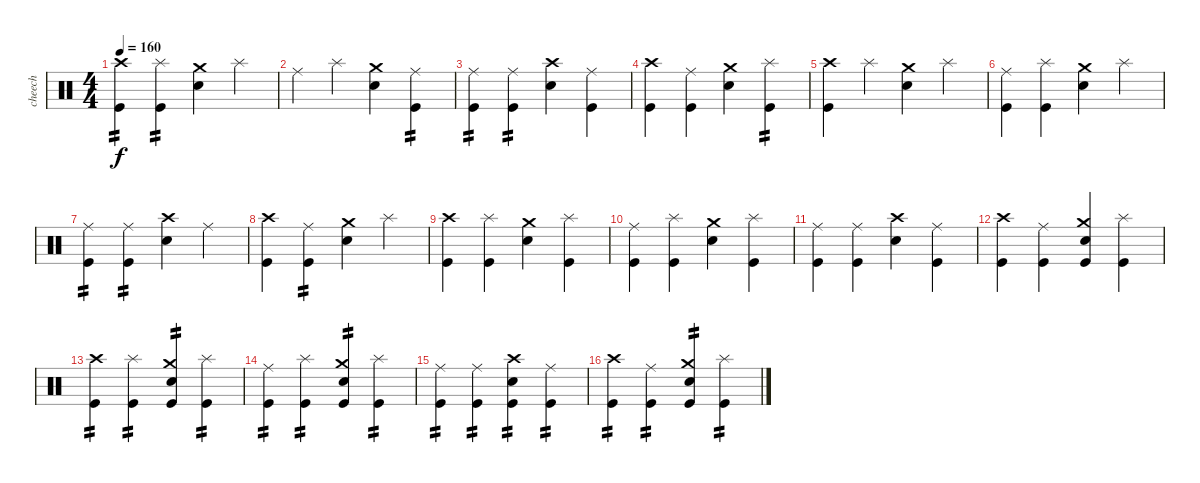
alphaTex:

\track ("cheech" "cheech") {instrument percussion}
\staff {score}
\articulation defaults
\ts (4 4)
\tempo 160
\clef neutral
\ks c
("Crash high (hit)" "Kick (hit)").4{tp 2 dy f} ("Splash (hit)" "Kick (hit)").4{tp 2} ("Crash medium (hit)" "Electric Snare (hit)").4 "Splash (hit)".4 |
"Ride (middle)".4 "Splash (hit)".4 ("Crash medium (hit)" "Electric Snare (hit)").4 ("Ride (middle)" "Kick (hit)").4{tp 2} |
("Ride (middle)" "Kick (hit)").4{tp 2} ("Ride (middle)" "Kick (hit)").4{tp 2} ("Crash high (hit)" "Electric Snare (hit)").4 ("Ride (middle)" "Kick (hit)").4 |
("Crash high (hit)" "Kick (hit)").4 ("Ride (middle)" "Kick (hit)").4 ("Crash medium (hit)" "Electric Snare (hit)").4 ("Splash (hit)" "Kick (hit)").4{tp 2} |
("Crash high (hit)" "Kick (hit)").4 "Splash (hit)".4 ("Crash medium (hit)" "Electric Snare (hit)").4 "Splash (hit)".4 |
("Ride (middle)" "Kick (hit)").4 ("Splash (hit)" "Kick (hit)").4 ("Crash medium (hit)" "Electric Snare (hit)").4 "Splash (hit)".4 |
("Ride (middle)" "Kick (hit)").4{tp 2} ("Ride (middle)" "Kick (hit)").4{tp 2} ("Crash high (hit)" "Electric Snare (hit)").4 "Ride (middle)".4 |
("Crash high (hit)" "Kick (hit)").4 ("Ride (middle)" "Kick (hit)").4{tp 2} ("Crash medium (hit)" "Electric Snare (hit)").4 "Splash (hit)".4 |
("Crash high (hit)" "Kick (hit)").4 ("Splash (hit)" "Kick (hit)").4 ("Crash medium (hit)" "Electric Snare (hit)").4 ("Splash (hit)" "Kick (hit)").4 |
("Ride (middle)" "Kick (hit)").4 ("Splash (hit)" "Kick (hit)").4 ("Crash medium (hit)" "Electric Snare (hit)").4 ("Splash (hit)" "Kick (hit)").4 |
("Ride (middle)" "Kick (hit)").4 ("Ride (middle)" "Kick (hit)").4 ("Crash high (hit)" "Electric Snare (hit)").4 ("Ride (middle)" "Kick (hit)").4 |
("Crash high (hit)" "Kick (hit)").4 ("Ride (middle)" "Kick (hit)").4 ("Crash medium (hit)" "Electric Snare (hit)" "Kick (hit)").4 ("Splash (hit)" "Kick (hit)").4 |
("Crash high (hit)" "Kick (hit)").4{tp 2} ("Splash (hit)" "Kick (hit)").4{tp 2} ("Crash medium (hit)" "Electric Snare (hit)" "Kick (hit)").4{tp 2} ("Splash (hit)" "Kick (hit)").4{tp 2} |
("Ride (middle)" "Kick (hit)").4{tp 2} ("Splash (hit)" "Kick (hit)").4{tp 2} ("Crash medium (hit)" "Electric Snare (hit)" "Kick (hit)").4{tp 2} ("Splash (hit)" "Kick (hit)").4{tp 2} |
("Ride (middle)" "Kick (hit)").4{tp 2} ("Ride (middle)" "Kick (hit)").4{tp 2} ("Crash high (hit)" "Electric Snare (hit)" "Kick (hit)").4{tp 2} ("Ride (middle)" "Kick (hit)").4{tp 2} |
("Crash high (hit)" "Kick (hit)").4{tp 2} ("Ride (middle)" "Kick (hit)").4{tp 2} ("Crash medium (hit)" "Electric Snare (hit)" "Kick (hit)").4{tp 2} ("Splash (hit)" "Kick (hit)").4{tp 2}
